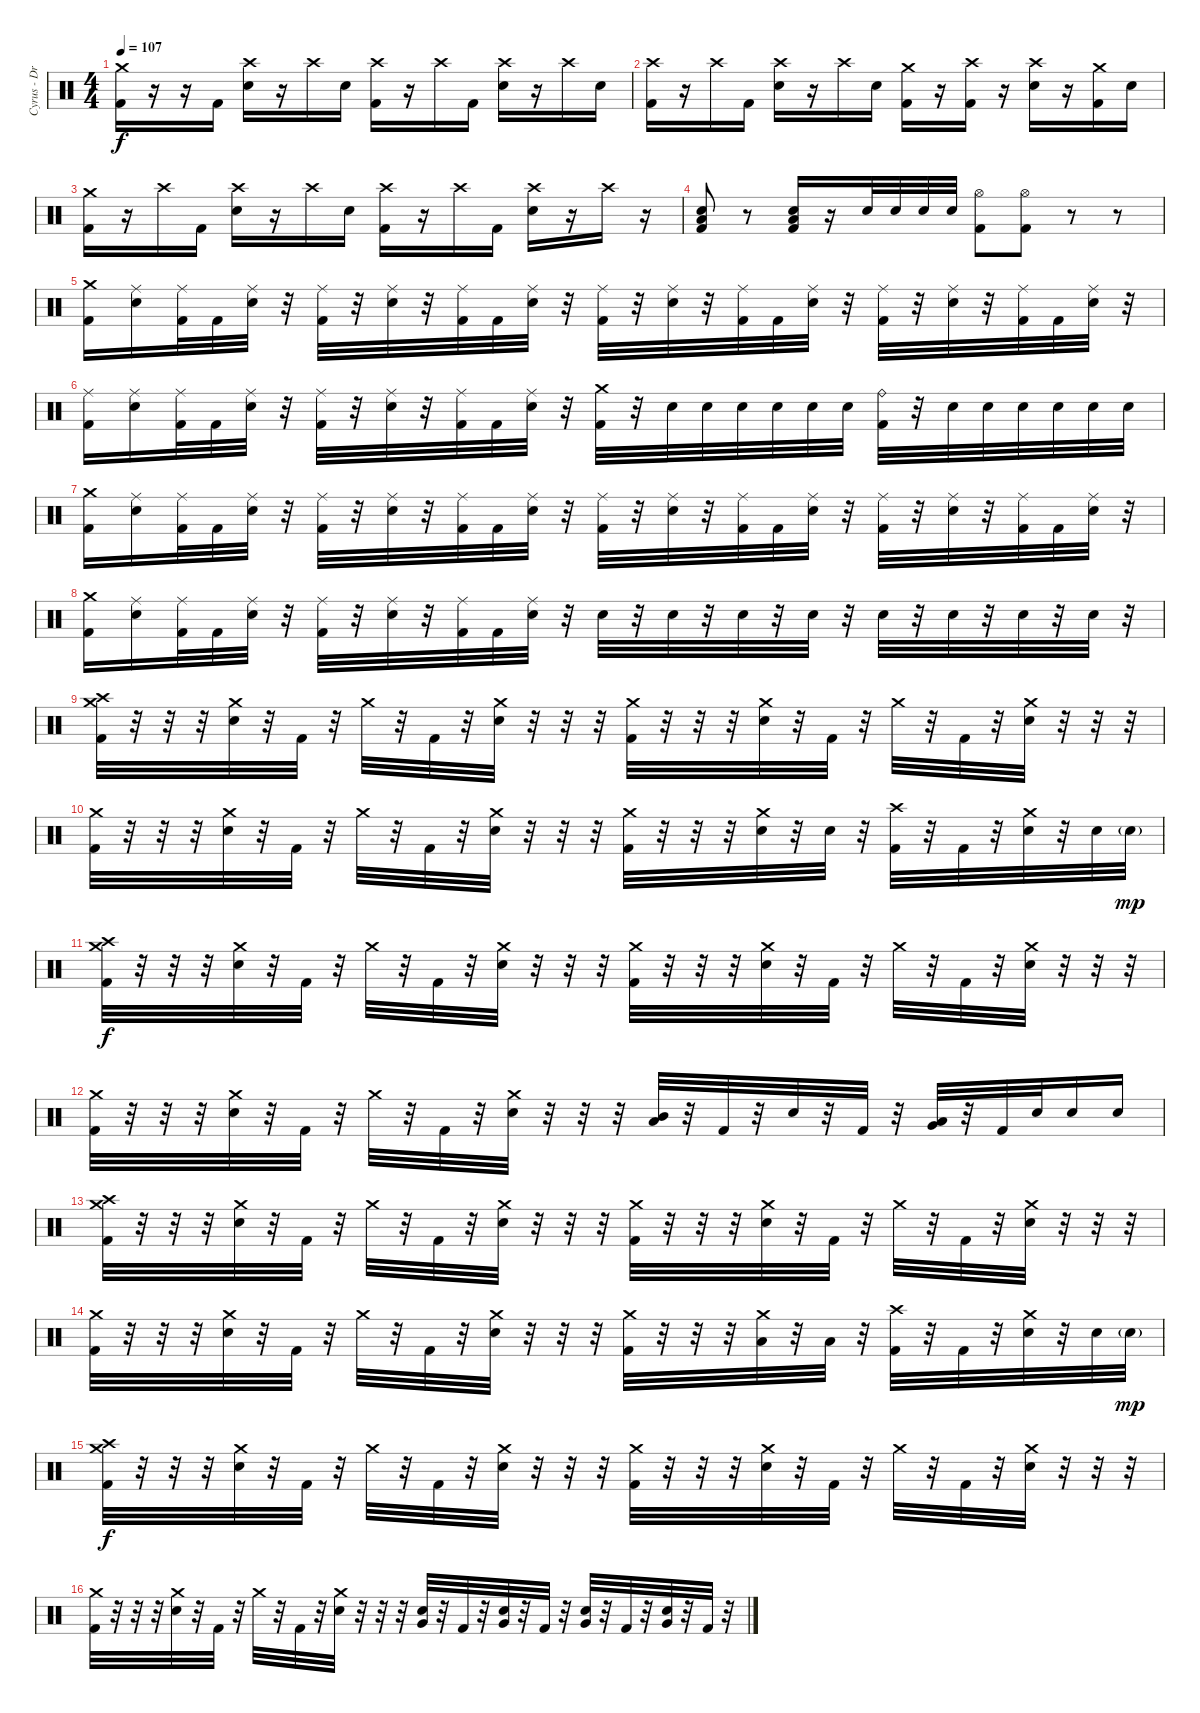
\track ("Cyrus - Drums" "Cyrus - Dr") {instrument percussion}
\staff {score}
\articulation defaults
\ts (4 4)
\tempo 107
\clef neutral
\ks c
("Crash medium (hit)" "Kick (hit) 2").16{dy f} r.16 r.16 "Kick (hit) 2".16 ("Crash high (hit)" "Electric Snare (hit)").16 r.16 "Crash high (hit)".16 "Electric Snare (hit)".16 ("Crash high (hit)" "Kick (hit) 2").16 r.16 "Crash high (hit)".16 "Kick (hit) 2".16 ("Crash high (hit)" "Electric Snare (hit)").16 r.16 "Crash high (hit)".16 "Electric Snare (hit)".16 |
("Crash high (hit)" "Kick (hit) 2").16 r.16 "Crash high (hit)".16 "Kick (hit) 2".16 ("Crash high (hit)" "Electric Snare (hit)").16 r.16 "Crash high (hit)".16 "Electric Snare (hit)".16 ("Crash medium (hit)" "Kick (hit) 2").16 r.16 ("Crash high (hit)" "Kick (hit) 2").16 r.16 ("Crash high (hit)" "Electric Snare (hit)").16 r.16 ("Crash medium (hit)" "Kick (hit) 2").16 "Electric Snare (hit)".16 |
("Crash medium (hit)" "Kick (hit) 2").16 r.16 "Crash high (hit)".16 "Kick (hit) 2".16 ("Crash high (hit)" "Electric Snare (hit)").16 r.16 "Crash high (hit)".16 "Electric Snare (hit)".16 ("Crash high (hit)" "Kick (hit) 2").16 r.16 "Crash high (hit)".16 "Kick (hit) 2".16 ("Crash high (hit)" "Electric Snare (hit)").16 r.16 "Crash high (hit)".16 r.16 |
("Electric Snare (hit)" "Low Tom (hit)" "Kick (hit) 2").8 r.8 ("Electric Snare (hit)" "Low Tom (hit)" "Kick (hit) 2").16 r.16 "Electric Snare (hit)".32 "Electric Snare (hit)".32 "Electric Snare (hit)".32 "Electric Snare (hit)".32 ("Hi-Hat (open)" "Kick (hit) 2").8 ("Hi-Hat (open)" "Kick (hit) 2").8 r.8 r.8 |
("Crash medium (hit)" "Kick (hit) 2").16 ("Ride (middle)" "Electric Snare (hit)").16 ("Ride (middle)" "Kick (hit) 2").32 "Kick (hit) 2".32 ("Ride (middle)" "Electric Snare (hit)").32 r.32 ("Ride (middle)" "Kick (hit) 2").32 r.32 ("Ride (middle)" "Electric Snare (hit)").32 r.32 ("Ride (middle)" "Kick (hit) 2").32 "Kick (hit) 2".32 ("Ride (middle)" "Electric Snare (hit)").32 r.32 ("Ride (middle)" "Kick (hit) 2").32 r.32 ("Ride (middle)" "Electric Snare (hit)").32 r.32 ("Ride (middle)" "Kick (hit) 2").32 "Kick (hit) 2".32 ("Ride (middle)" "Electric Snare (hit)").32 r.32 ("Ride (middle)" "Kick (hit) 2").32 r.32 ("Ride (middle)" "Electric Snare (hit)").32 r.32 ("Ride (middle)" "Kick (hit) 2").32 "Kick (hit) 2".32 ("Ride (middle)" "Electric Snare (hit)").32 r.32 |
("Ride (middle)" "Kick (hit) 2").16 ("Ride (middle)" "Electric Snare (hit)").16 ("Ride (middle)" "Kick (hit) 2").32 "Kick (hit) 2".32 ("Ride (middle)" "Electric Snare (hit)").32 r.32 ("Ride (middle)" "Kick (hit) 2").32 r.32 ("Ride (middle)" "Electric Snare (hit)").32 r.32 ("Ride (middle)" "Kick (hit) 2").32 "Kick (hit) 2".32 ("Ride (middle)" "Electric Snare (hit)").32 r.32 ("Crash medium (hit)" "Kick (hit) 2").32 r.32 "Electric Snare (hit)".32 "Electric Snare (hit)".32 "Electric Snare (hit)".32 "Electric Snare (hit)".32 "Electric Snare (hit)".32 "Electric Snare (hit)".32 ("Ride (bell)" "Kick (hit) 2").32 r.32 "Electric Snare (hit)".32 "Electric Snare (hit)".32 "Electric Snare (hit)".32 "Electric Snare (hit)".32 "Electric Snare (hit)".32 "Electric Snare (hit)".32 |
("Crash medium (hit)" "Kick (hit) 2").16 ("Ride (middle)" "Electric Snare (hit)").16 ("Ride (middle)" "Kick (hit) 2").32 "Kick (hit) 2".32 ("Ride (middle)" "Electric Snare (hit)").32 r.32 ("Ride (middle)" "Kick (hit) 2").32 r.32 ("Ride (middle)" "Electric Snare (hit)").32 r.32 ("Ride (middle)" "Kick (hit) 2").32 "Kick (hit) 2".32 ("Ride (middle)" "Electric Snare (hit)").32 r.32 ("Ride (middle)" "Kick (hit) 2").32 r.32 ("Ride (middle)" "Electric Snare (hit)").32 r.32 ("Ride (middle)" "Kick (hit) 2").32 "Kick (hit) 2".32 ("Ride (middle)" "Electric Snare (hit)").32 r.32 ("Ride (middle)" "Kick (hit) 2").32 r.32 ("Ride (middle)" "Electric Snare (hit)").32 r.32 ("Ride (middle)" "Kick (hit) 2").32 "Kick (hit) 2".32 ("Ride (middle)" "Electric Snare (hit)").32 r.32 |
("Crash medium (hit)" "Kick (hit) 2").16 ("Ride (middle)" "Electric Snare (hit)").16 ("Ride (middle)" "Kick (hit) 2").32 "Kick (hit) 2".32 ("Ride (middle)" "Electric Snare (hit)").32 r.32 ("Ride (middle)" "Kick (hit) 2").32 r.32 ("Ride (middle)" "Electric Snare (hit)").32 r.32 ("Ride (middle)" "Kick (hit) 2").32 "Kick (hit) 2".32 ("Ride (middle)" "Electric Snare (hit)").32 r.32 "Electric Snare (hit)".32 r.32 "Electric Snare (hit)".32 r.32 "Electric Snare (hit)".32 r.32 "Electric Snare (hit)".32 r.32 "Electric Snare (hit)".32 r.32 "Electric Snare (hit)".32 r.32 "Electric Snare (hit)".32 r.32 "Electric Snare (hit)".32 r.32 |
("Crash medium (hit)" "Crash high (hit)" "Kick (hit) 2").32 r.32 r.32 r.32 ("Crash medium (hit)" "Electric Snare (hit)").32 r.32 "Kick (hit) 2".32 r.32 "Crash medium (hit)".32 r.32 "Kick (hit) 2".32 r.32 ("Crash medium (hit)" "Electric Snare (hit)").32 r.32 r.32 r.32 ("Crash medium (hit)" "Kick (hit) 2").32 r.32 r.32 r.32 ("Crash medium (hit)" "Electric Snare (hit)").32 r.32 "Kick (hit) 2".32 r.32 "Crash medium (hit)".32 r.32 "Kick (hit) 2".32 r.32 ("Crash medium (hit)" "Electric Snare (hit)").32 r.32 r.32 r.32 |
("Crash medium (hit)" "Kick (hit) 2").32 r.32 r.32 r.32 ("Crash medium (hit)" "Electric Snare (hit)").32 r.32 "Kick (hit) 2".32 r.32 "Crash medium (hit)".32 r.32 "Kick (hit) 2".32 r.32 ("Crash medium (hit)" "Electric Snare (hit)").32 r.32 r.32 r.32 ("Crash medium (hit)" "Kick (hit) 2").32 r.32 r.32 r.32 ("Crash medium (hit)" "Electric Snare (hit)").32 r.32 "Electric Snare (hit)".32 r.32 ("Crash high (hit)" "Kick (hit) 2").32 r.32 "Kick (hit) 2".32 r.32 ("Crash medium (hit)" "Electric Snare (hit)").32 r.32 "Electric Snare (hit)".32 "Electric Snare (hit)"{g}.32{dy mp} |
("Crash medium (hit)" "Crash high (hit)" "Kick (hit) 2").32{dy f} r.32 r.32 r.32 ("Crash medium (hit)" "Electric Snare (hit)").32 r.32 "Kick (hit) 2".32 r.32 "Crash medium (hit)".32 r.32 "Kick (hit) 2".32 r.32 ("Crash medium (hit)" "Electric Snare (hit)").32 r.32 r.32 r.32 ("Crash medium (hit)" "Kick (hit) 2").32 r.32 r.32 r.32 ("Crash medium (hit)" "Electric Snare (hit)").32 r.32 "Kick (hit) 2".32 r.32 "Crash medium (hit)".32 r.32 "Kick (hit) 2".32 r.32 ("Crash medium (hit)" "Electric Snare (hit)").32 r.32 r.32 r.32 |
("Crash medium (hit)" "Kick (hit) 2").32 r.32 r.32 r.32 ("Crash medium (hit)" "Electric Snare (hit)").32 r.32 "Kick (hit) 2".32 r.32 "Crash medium (hit)".32 r.32 "Kick (hit) 2".32 r.32 ("Crash medium (hit)" "Electric Snare (hit)").32 r.32 r.32 r.32 ("Mid Tom (hit)" "Low Tom (hit)").32 r.32 "Kick (hit) 2".32 r.32 "Electric Snare (hit)".32 r.32 "Kick (hit) 2".32 r.32 ("Low Tom (hit)" "Very Low Tom (hit)").32 r.32 "Kick (hit) 2".32 "Electric Snare (hit)".32 "Electric Snare (hit)".16 "Electric Snare (hit)".16 |
("Crash medium (hit)" "Crash high (hit)" "Kick (hit) 2").32 r.32 r.32 r.32 ("Crash medium (hit)" "Electric Snare (hit)").32 r.32 "Kick (hit) 2".32 r.32 "Crash medium (hit)".32 r.32 "Kick (hit) 2".32 r.32 ("Crash medium (hit)" "Electric Snare (hit)").32 r.32 r.32 r.32 ("Crash medium (hit)" "Kick (hit) 2").32 r.32 r.32 r.32 ("Crash medium (hit)" "Electric Snare (hit)").32 r.32 "Kick (hit) 2".32 r.32 "Crash medium (hit)".32 r.32 "Kick (hit) 2".32 r.32 ("Crash medium (hit)" "Electric Snare (hit)").32 r.32 r.32 r.32 |
("Crash medium (hit)" "Kick (hit) 2").32 r.32 r.32 r.32 ("Crash medium (hit)" "Electric Snare (hit)").32 r.32 "Kick (hit) 2".32 r.32 "Crash medium (hit)".32 r.32 "Kick (hit) 2".32 r.32 ("Crash medium (hit)" "Electric Snare (hit)").32 r.32 r.32 r.32 ("Crash medium (hit)" "Kick (hit) 2").32 r.32 r.32 r.32 ("Crash medium (hit)" "Low Tom (hit)").32 r.32 "Low Tom (hit)".32 r.32 ("Crash high (hit)" "Kick (hit) 2").32 r.32 "Kick (hit) 2".32 r.32 ("Crash medium (hit)" "Electric Snare (hit)").32 r.32 "Electric Snare (hit)".32 "Electric Snare (hit)"{g}.32{dy mp} |
("Crash medium (hit)" "Crash high (hit)" "Kick (hit) 2").32{dy f} r.32 r.32 r.32 ("Crash medium (hit)" "Electric Snare (hit)").32 r.32 "Kick (hit) 2".32 r.32 "Crash medium (hit)".32 r.32 "Kick (hit) 2".32 r.32 ("Crash medium (hit)" "Electric Snare (hit)").32 r.32 r.32 r.32 ("Crash medium (hit)" "Kick (hit) 2").32 r.32 r.32 r.32 ("Crash medium (hit)" "Electric Snare (hit)").32 r.32 "Kick (hit) 2".32 r.32 "Crash medium (hit)".32 r.32 "Kick (hit) 2".32 r.32 ("Crash medium (hit)" "Electric Snare (hit)").32 r.32 r.32 r.32 |
("Crash medium (hit)" "Kick (hit) 2").32 r.32 r.32 r.32 ("Crash medium (hit)" "Electric Snare (hit)").32 r.32 "Kick (hit) 2".32 r.32 "Crash medium (hit)".32 r.32 "Kick (hit) 2".32 r.32 ("Crash medium (hit)" "Electric Snare (hit)").32 r.32 r.32 r.32 ("Very Low Tom (hit)" "Electric Snare (hit)").32 r.32 "Kick (hit) 2".32 r.32 ("Very Low Tom (hit)" "Electric Snare (hit)").32 r.32 "Kick (hit) 2".32 r.32 ("Very Low Tom (hit)" "Electric Snare (hit)").32 r.32 "Kick (hit) 2".32 r.32 ("Very Low Tom (hit)" "Electric Snare (hit)").32 r.32 "Kick (hit) 2".32 r.32
